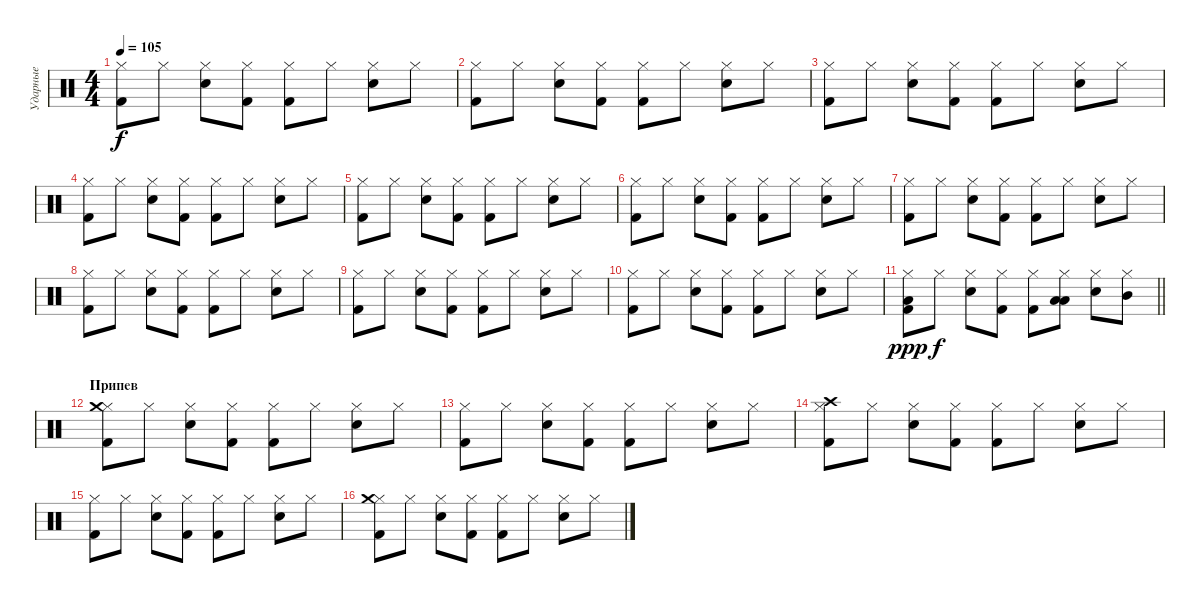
\track ("Ударные" "Ударные") {instrument percussion}
\staff {score}
\articulation defaults
\ts (4 4)
\tempo 105
\clef neutral
\ks c
("Kick (hit) 2" "Hi-Hat (closed)").8{dy f} "Hi-Hat (closed)".8 ("Hi-Hat (closed)" "Electric Snare (hit)").8 ("Kick (hit) 2" "Hi-Hat (closed)").8 ("Kick (hit) 2" "Hi-Hat (closed)").8 "Hi-Hat (closed)".8 ("Electric Snare (hit)" "Hi-Hat (closed)").8 "Hi-Hat (closed)".8 |
("Kick (hit) 2" "Hi-Hat (closed)").8 "Hi-Hat (closed)".8 ("Hi-Hat (closed)" "Electric Snare (hit)").8 ("Kick (hit) 2" "Hi-Hat (closed)").8 ("Kick (hit) 2" "Hi-Hat (closed)").8 "Hi-Hat (closed)".8 ("Electric Snare (hit)" "Hi-Hat (closed)").8 "Hi-Hat (closed)".8 |
("Kick (hit) 2" "Hi-Hat (closed)").8 "Hi-Hat (closed)".8 ("Hi-Hat (closed)" "Electric Snare (hit)").8 ("Kick (hit) 2" "Hi-Hat (closed)").8 ("Kick (hit) 2" "Hi-Hat (closed)").8 "Hi-Hat (closed)".8 ("Electric Snare (hit)" "Hi-Hat (closed)").8 "Hi-Hat (closed)".8 |
("Kick (hit) 2" "Hi-Hat (closed)").8 "Hi-Hat (closed)".8 ("Hi-Hat (closed)" "Electric Snare (hit)").8 ("Kick (hit) 2" "Hi-Hat (closed)").8 ("Kick (hit) 2" "Hi-Hat (closed)").8 "Hi-Hat (closed)".8 ("Electric Snare (hit)" "Hi-Hat (closed)").8 "Hi-Hat (closed)".8 |
("Kick (hit) 2" "Hi-Hat (closed)").8 "Hi-Hat (closed)".8 ("Hi-Hat (closed)" "Electric Snare (hit)").8 ("Kick (hit) 2" "Hi-Hat (closed)").8 ("Kick (hit) 2" "Hi-Hat (closed)").8 "Hi-Hat (closed)".8 ("Electric Snare (hit)" "Hi-Hat (closed)").8 "Hi-Hat (closed)".8 |
("Kick (hit) 2" "Hi-Hat (closed)").8 "Hi-Hat (closed)".8 ("Hi-Hat (closed)" "Electric Snare (hit)").8 ("Kick (hit) 2" "Hi-Hat (closed)").8 ("Kick (hit) 2" "Hi-Hat (closed)").8 "Hi-Hat (closed)".8 ("Electric Snare (hit)" "Hi-Hat (closed)").8 "Hi-Hat (closed)".8 |
("Kick (hit) 2" "Hi-Hat (closed)").8 "Hi-Hat (closed)".8 ("Hi-Hat (closed)" "Electric Snare (hit)").8 ("Kick (hit) 2" "Hi-Hat (closed)").8 ("Kick (hit) 2" "Hi-Hat (closed)").8 "Hi-Hat (closed)".8 ("Electric Snare (hit)" "Hi-Hat (closed)").8 "Hi-Hat (closed)".8 |
("Kick (hit) 2" "Hi-Hat (closed)").8 "Hi-Hat (closed)".8 ("Hi-Hat (closed)" "Electric Snare (hit)").8 ("Kick (hit) 2" "Hi-Hat (closed)").8 ("Kick (hit) 2" "Hi-Hat (closed)").8 "Hi-Hat (closed)".8 ("Electric Snare (hit)" "Hi-Hat (closed)").8 "Hi-Hat (closed)".8 |
("Kick (hit) 2" "Hi-Hat (closed)").8 "Hi-Hat (closed)".8 ("Hi-Hat (closed)" "Electric Snare (hit)").8 ("Kick (hit) 2" "Hi-Hat (closed)").8 ("Kick (hit) 2" "Hi-Hat (closed)").8 "Hi-Hat (closed)".8 ("Electric Snare (hit)" "Hi-Hat (closed)").8 "Hi-Hat (closed)".8 |
("Kick (hit) 2" "Hi-Hat (closed)").8 "Hi-Hat (closed)".8 ("Hi-Hat (closed)" "Electric Snare (hit)").8 ("Kick (hit) 2" "Hi-Hat (closed)").8 ("Kick (hit) 2" "Hi-Hat (closed)").8 "Hi-Hat (closed)".8 ("Electric Snare (hit)" "Hi-Hat (closed)").8 "Hi-Hat (closed)".8 |
\barLineRight lightlight
("Kick (hit) 2" "Hi-Hat (closed)" "Low Tom (hit)").8{dy ppp} "Hi-Hat (closed)".8{dy f} ("Hi-Hat (closed)" "Electric Snare (hit)").8 ("Kick (hit) 2" "Hi-Hat (closed)").8 ("Kick (hit) 2" "Hi-Hat (closed)").8 ("Low Tom (hit)" "Hi-Hat (closed)" "Low Tom (hit)").8 ("Electric Snare (hit)" "Hi-Hat (closed)").8 ("Hi-Hat (closed)" "Mid Tom (hit)").8 |
\section ("" "Припев")
("Kick (hit) 2" "Hi-Hat (closed)" "Crash medium (hit)").8 "Hi-Hat (closed)".8 ("Hi-Hat (closed)" "Electric Snare (hit)").8 ("Kick (hit) 2" "Hi-Hat (closed)").8 ("Kick (hit) 2" "Hi-Hat (closed)").8 "Hi-Hat (closed)".8 ("Electric Snare (hit)" "Hi-Hat (closed)").8 "Hi-Hat (closed)".8 |
("Kick (hit) 2" "Hi-Hat (closed)").8 "Hi-Hat (closed)".8 ("Hi-Hat (closed)" "Electric Snare (hit)").8 ("Kick (hit) 2" "Hi-Hat (closed)").8 ("Kick (hit) 2" "Hi-Hat (closed)").8 "Hi-Hat (closed)".8 ("Electric Snare (hit)" "Hi-Hat (closed)").8 "Hi-Hat (closed)".8 |
("Kick (hit) 2" "Hi-Hat (closed)" "Crash high (hit)").8 "Hi-Hat (closed)".8 ("Hi-Hat (closed)" "Electric Snare (hit)").8 ("Kick (hit) 2" "Hi-Hat (closed)").8 ("Kick (hit) 2" "Hi-Hat (closed)").8 "Hi-Hat (closed)".8 ("Electric Snare (hit)" "Hi-Hat (closed)").8 "Hi-Hat (closed)".8 |
("Kick (hit) 2" "Hi-Hat (closed)").8 "Hi-Hat (closed)".8 ("Hi-Hat (closed)" "Electric Snare (hit)").8 ("Kick (hit) 2" "Hi-Hat (closed)").8 ("Kick (hit) 2" "Hi-Hat (closed)").8 "Hi-Hat (closed)".8 ("Electric Snare (hit)" "Hi-Hat (closed)").8 "Hi-Hat (closed)".8 |
("Kick (hit) 2" "Hi-Hat (closed)" "Crash medium (hit)").8 "Hi-Hat (closed)".8 ("Hi-Hat (closed)" "Electric Snare (hit)").8 ("Kick (hit) 2" "Hi-Hat (closed)").8 ("Kick (hit) 2" "Hi-Hat (closed)").8 "Hi-Hat (closed)".8 ("Electric Snare (hit)" "Hi-Hat (closed)").8 "Hi-Hat (closed)".8
